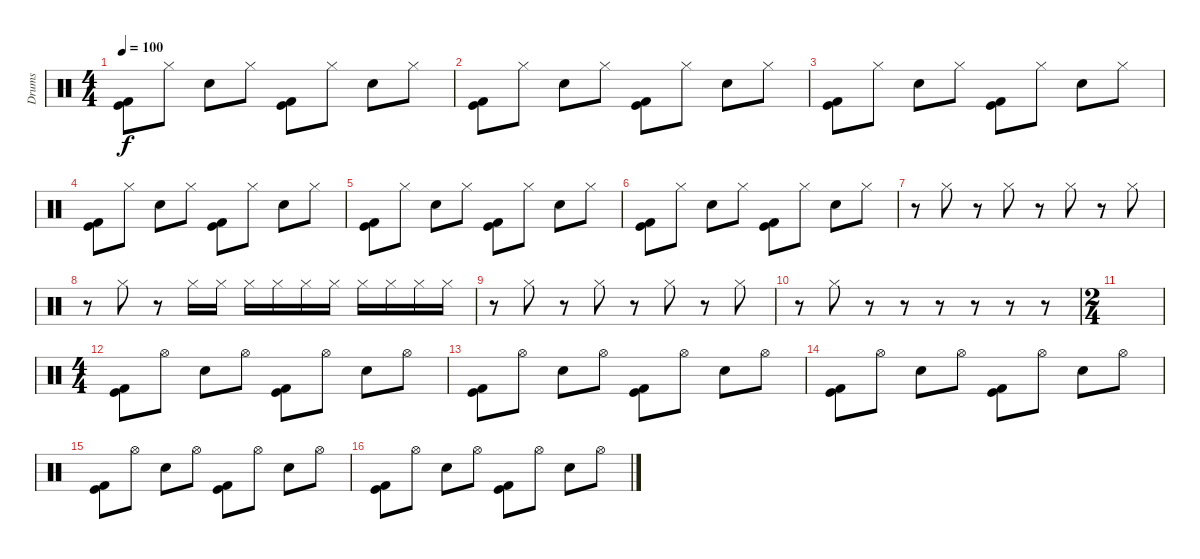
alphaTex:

\track ("Drums" "Drums") {instrument percussion}
\staff {score}
\articulation defaults
\ts (4 4)
\tempo 100
\clef neutral
\ks c
("Kick (hit)" "Kick (hit) 2").8{dy f} "Hi-Hat (closed)".8 "Snare (hit) 2".8 "Hi-Hat (closed)".8 ("Kick (hit)" "Kick (hit) 2").8 "Hi-Hat (closed)".8 "Snare (hit) 2".8 "Hi-Hat (closed)".8 |
("Kick (hit)" "Kick (hit) 2").8 "Hi-Hat (closed)".8 "Snare (hit) 2".8 "Hi-Hat (closed)".8 ("Kick (hit)" "Kick (hit) 2").8 "Hi-Hat (closed)".8 "Snare (hit) 2".8 "Hi-Hat (closed)".8 |
("Kick (hit)" "Kick (hit) 2").8 "Hi-Hat (closed)".8 "Snare (hit) 2".8 "Hi-Hat (closed)".8 ("Kick (hit)" "Kick (hit) 2").8 "Hi-Hat (closed)".8 "Snare (hit) 2".8 "Hi-Hat (closed)".8 |
("Kick (hit)" "Kick (hit) 2").8 "Hi-Hat (closed)".8 "Snare (hit) 2".8 "Hi-Hat (closed)".8 ("Kick (hit)" "Kick (hit) 2").8 "Hi-Hat (closed)".8 "Snare (hit) 2".8 "Hi-Hat (closed)".8 |
("Kick (hit)" "Kick (hit) 2").8 "Hi-Hat (closed)".8 "Snare (hit) 2".8 "Hi-Hat (closed)".8 ("Kick (hit)" "Kick (hit) 2").8 "Hi-Hat (closed)".8 "Snare (hit) 2".8 "Hi-Hat (closed)".8 |
("Kick (hit)" "Kick (hit) 2").8 "Hi-Hat (closed)".8 "Snare (hit) 2".8 "Hi-Hat (closed)".8 ("Kick (hit)" "Kick (hit) 2").8 "Hi-Hat (closed)".8 "Snare (hit) 2".8 "Hi-Hat (closed)".8 |
r.8{volume 7} "Hi-Hat (closed)".8 r.8 "Hi-Hat (closed)".8 r.8 "Hi-Hat (closed)".8 r.8 "Hi-Hat (closed)".8 |
r.8 "Hi-Hat (closed)".8 r.8 "Hi-Hat (closed)".16 "Hi-Hat (closed)".16 "Hi-Hat (closed)".16 "Hi-Hat (closed)".16 "Hi-Hat (closed)".16 "Hi-Hat (closed)".16 "Hi-Hat (closed)".16 "Hi-Hat (closed)".16 "Hi-Hat (closed)".16 "Hi-Hat (closed)".16 |
r.8 "Hi-Hat (closed)".8 r.8 "Hi-Hat (closed)".8 r.8 "Hi-Hat (closed)".8 r.8 "Hi-Hat (closed)".8 |
r.8 "Hi-Hat (closed)".8 r.8 r.8 r.8 r.8 r.8 r.8 |
\ts (2 4)
|
\ts (4 4)
("Kick (hit) 2" "Kick (hit)").8 "Hi-Hat (open)".8 "Snare (hit) 2".8 "Hi-Hat (open)".8 ("Kick (hit) 2" "Kick (hit)").8 "Hi-Hat (open)".8 "Snare (hit) 2".8 "Hi-Hat (open)".8 |
("Kick (hit) 2" "Kick (hit)").8 "Hi-Hat (open)".8 "Snare (hit) 2".8 "Hi-Hat (open)".8 ("Kick (hit) 2" "Kick (hit)").8 "Hi-Hat (open)".8 "Snare (hit) 2".8 "Hi-Hat (open)".8 |
("Kick (hit) 2" "Kick (hit)").8 "Hi-Hat (open)".8 "Snare (hit) 2".8 "Hi-Hat (open)".8 ("Kick (hit) 2" "Kick (hit)").8 "Hi-Hat (open)".8 "Snare (hit) 2".8 "Hi-Hat (open)".8 |
("Kick (hit) 2" "Kick (hit)").8 "Hi-Hat (open)".8 "Snare (hit) 2".8 "Hi-Hat (open)".8 ("Kick (hit) 2" "Kick (hit)").8 "Hi-Hat (open)".8 "Snare (hit) 2".8 "Hi-Hat (open)".8 |
("Kick (hit) 2" "Kick (hit)").8 "Hi-Hat (open)".8 "Snare (hit) 2".8 "Hi-Hat (open)".8 ("Kick (hit) 2" "Kick (hit)").8 "Hi-Hat (open)".8 "Snare (hit) 2".8 "Hi-Hat (open)".8
